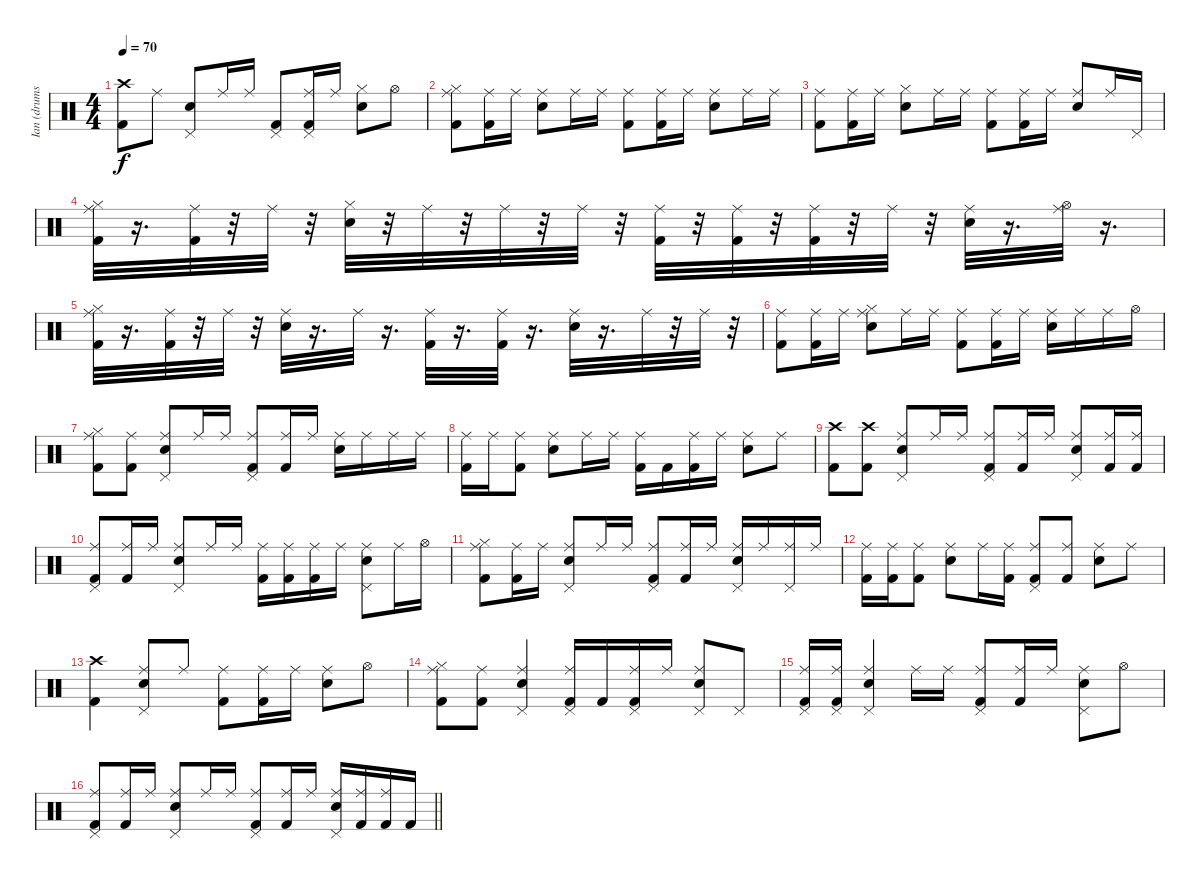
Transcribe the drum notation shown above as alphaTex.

\track ("Ian (drums)" "Ian (drums") {instrument percussion}
\staff {score}
\articulation defaults
\ts (4 4)
\tempo 70
\clef neutral
\ks c
("Kick (hit) 2" "Crash high (hit)").8{dy f} "Ride (middle)".8 ("Snare (hit) 2" "Pedal Hi-Hat (hit)").8 "Ride (middle)".16 "Ride (middle)".16 ("Kick (hit) 2" "Pedal Hi-Hat (hit)").8 ("Kick (hit) 2" "Pedal Hi-Hat (hit)" "Ride (middle)").16 "Ride (middle)".16 ("Snare (hit) 2" "Hi-Hat (closed)").8 "Hi-Hat (open)".8 |
("Kick (hit) 2" "Hi-Hat (closed)" "Ride (middle)").8 ("Kick (hit) 2" "Ride (middle)").16 "Ride (middle)".16 ("Snare (hit) 2" "Ride (middle)").8 "Ride (middle)".16 "Ride (middle)".16 ("Kick (hit) 2" "Ride (middle)").8 ("Kick (hit) 2" "Ride (middle)").16 "Ride (middle)".16 ("Snare (hit) 2" "Ride (middle)").8 "Ride (middle)".16 "Ride (middle)".16 |
("Kick (hit) 2" "Ride (middle)").8 ("Kick (hit) 2" "Ride (middle)").16 "Ride (middle)".16 ("Snare (hit) 2" "Hi-Hat (closed)").8 "Ride (middle)".16 "Ride (middle)".16 ("Kick (hit) 2" "Ride (middle)").8 ("Kick (hit) 2" "Ride (middle)").16 "Ride (middle)".16 ("Snare (hit) 2" "Ride (middle)").8 "Ride (middle)".16 "Pedal Hi-Hat (hit)".16 |
("Kick (hit) 2" "Hi-Hat (closed)" "Ride (middle)").32 r.16{d} ("Kick (hit) 2" "Ride (middle)").32 r.32 "Ride (middle)".32 r.32 ("Snare (hit) 2" "Hi-Hat (closed)").32 r.32 "Ride (middle)".32 r.32 "Ride (middle)".32 r.32 "Ride (middle)".32 r.32 ("Kick (hit) 2" "Ride (middle)").32 r.32 ("Kick (hit) 2" "Ride (middle)").32 r.32 ("Kick (hit) 2" "Ride (middle)").32 r.32 "Ride (middle)".32 r.32 ("Snare (hit) 2" "Ride (middle)").32 r.16{d} ("Hi-Hat (open)" "Ride (middle)").32 r.16{d} |
("Kick (hit) 2" "Hi-Hat (closed)" "Ride (middle)").32 r.16{d} ("Kick (hit) 2" "Ride (middle)").32 r.32 "Ride (middle)".32 r.32 ("Snare (hit) 2" "Ride (middle)").32 r.16{d} "Ride (middle)".32 r.16{d} ("Kick (hit) 2" "Ride (middle)").32 r.16{d} ("Kick (hit) 2" "Ride (middle)").32 r.16{d} ("Snare (hit) 2" "Ride (middle)").32 r.16{d} "Ride (middle)".32 r.32 "Ride (middle)".32 r.32 |
("Kick (hit) 2" "Ride (middle)").8 ("Kick (hit) 2" "Ride (middle)").16 "Ride (middle)".16 ("Snare (hit) 2" "Hi-Hat (closed)" "Ride (middle)").8 "Ride (middle)".16 "Ride (middle)".16 ("Kick (hit) 2" "Ride (middle)").8 ("Kick (hit) 2" "Ride (middle)").16 "Ride (middle)".16 ("Snare (hit) 2" "Ride (middle)").16 "Ride (middle)".16 "Ride (middle)".16 "Hi-Hat (open)".16 |
("Kick (hit) 2" "Hi-Hat (closed)" "Ride (middle)").8 ("Kick (hit) 2" "Ride (middle)").8 ("Snare (hit) 2" "Pedal Hi-Hat (hit)" "Ride (middle)").8 "Ride (middle)".16 "Ride (middle)".16 ("Kick (hit) 2" "Pedal Hi-Hat (hit)" "Ride (middle)").8 ("Kick (hit) 2" "Ride (middle)").16 "Ride (middle)".16 ("Snare (hit) 2" "Ride (middle)").16 "Ride (middle)".16 "Ride (middle)".16 "Ride (middle)".16 |
("Kick (hit) 2" "Ride (middle)").16 "Ride (middle)".16 ("Kick (hit) 2" "Ride (middle)").8 ("Snare (hit) 2" "Ride (middle)").8 "Ride (middle)".16 "Ride (middle)".16 ("Kick (hit) 2" "Ride (middle)").16 "Kick (hit) 2".16 ("Kick (hit) 2" "Ride (middle)").16 "Ride (middle)".16 ("Snare (hit) 2" "Ride (middle)").8 "Ride (middle)".8 |
("Kick (hit) 2" "Crash high (hit)").8 ("Kick (hit) 2" "Crash high (hit)").8 ("Snare (hit) 2" "Pedal Hi-Hat (hit)" "Ride (middle)").8 "Ride (middle)".16 "Ride (middle)".16 ("Kick (hit) 2" "Pedal Hi-Hat (hit)" "Ride (middle)").8 ("Kick (hit) 2" "Ride (middle)").16 "Ride (middle)".16 ("Snare (hit) 2" "Pedal Hi-Hat (hit)" "Ride (middle)").8 ("Kick (hit) 2" "Ride (middle)").16 ("Kick (hit) 2" "Ride (middle)").16 |
("Kick (hit) 2" "Pedal Hi-Hat (hit)" "Ride (middle)").8 ("Kick (hit) 2" "Ride (middle)").16 "Ride (middle)".16 ("Snare (hit) 2" "Pedal Hi-Hat (hit)" "Ride (middle)").8 "Ride (middle)".16 "Ride (middle)".16 ("Kick (hit) 2" "Ride (middle)").16 ("Kick (hit) 2" "Ride (middle)").16 ("Kick (hit) 2" "Ride (middle)").16 "Ride (middle)".16 ("Pedal Hi-Hat (hit)" "Snare (hit) 2" "Ride (middle)").8 "Ride (middle)".16 "Hi-Hat (open)".16 |
("Kick (hit) 2" "Hi-Hat (closed)" "Ride (middle)").8 ("Kick (hit) 2" "Ride (middle)").16 "Ride (middle)".16 ("Snare (hit) 2" "Pedal Hi-Hat (hit)" "Ride (middle)").8 "Ride (middle)".16 "Ride (middle)".16 ("Kick (hit) 2" "Pedal Hi-Hat (hit)" "Ride (middle)").8 ("Kick (hit) 2" "Ride (middle)").16 "Ride (middle)".16 ("Snare (hit) 2" "Pedal Hi-Hat (hit)" "Ride (middle)").16 "Ride (middle)".16 ("Pedal Hi-Hat (hit)" "Ride (middle)").16 "Ride (middle)".16 |
("Kick (hit) 2" "Ride (middle)").16 ("Kick (hit) 2" "Ride (middle)").16 ("Kick (hit) 2" "Ride (middle)").8 ("Snare (hit) 2" "Ride (middle)").8 "Ride (middle)".16 ("Kick (hit) 2" "Ride (middle)").16 ("Kick (hit) 2" "Pedal Hi-Hat (hit)" "Ride (middle)").8 ("Kick (hit) 2" "Ride (middle)").8 ("Snare (hit) 2" "Ride (middle)").8 "Ride (middle)".8 |
("Kick (hit) 2" "Crash high (hit)").4 ("Snare (hit) 2" "Pedal Hi-Hat (hit)" "Ride (middle)").8 "Ride (middle)".8 ("Kick (hit) 2" "Ride (middle)").8 ("Kick (hit) 2" "Ride (middle)").16 "Ride (middle)".16 ("Snare (hit) 2" "Ride (middle)").8 "Hi-Hat (open)".8 |
("Kick (hit) 2" "Hi-Hat (closed)" "Ride (middle)").8 ("Kick (hit) 2" "Ride (middle)").8 ("Snare (hit) 2" "Pedal Hi-Hat (hit)" "Ride (middle)").4 ("Pedal Hi-Hat (hit)" "Kick (hit) 2" "Ride (middle)").16 "Kick (hit) 2".16 ("Pedal Hi-Hat (hit)" "Kick (hit) 2" "Ride (middle)").16 "Ride (middle)".16 ("Pedal Hi-Hat (hit)" "Snare (hit) 2" "Ride (middle)").8 "Pedal Hi-Hat (hit)".8 |
("Kick (hit) 2" "Pedal Hi-Hat (hit)" "Ride (middle)").16 ("Kick (hit) 2" "Pedal Hi-Hat (hit)" "Ride (middle)").16 ("Snare (hit) 2" "Pedal Hi-Hat (hit)" "Ride (middle)").4 "Ride (middle)".16 "Ride (middle)".16 ("Kick (hit) 2" "Pedal Hi-Hat (hit)" "Ride (middle)").8 ("Kick (hit) 2" "Ride (middle)").16 "Ride (middle)".16 ("Snare (hit) 2" "Pedal Hi-Hat (hit)" "Ride (middle)").8 "Hi-Hat (open)".8 |
\barLineRight lightlight
("Kick (hit) 2" "Pedal Hi-Hat (hit)" "Ride (middle)").8 ("Kick (hit) 2" "Ride (middle)").16 "Ride (middle)".16 ("Snare (hit) 2" "Pedal Hi-Hat (hit)" "Ride (middle)").8 "Ride (middle)".16 "Ride (middle)".16 ("Kick (hit) 2" "Pedal Hi-Hat (hit)" "Ride (middle)").8 ("Kick (hit) 2" "Ride (middle)").16 "Ride (middle)".16 ("Snare (hit) 2" "Pedal Hi-Hat (hit)" "Ride (middle)").16 ("Kick (hit) 2" "Ride (middle)").16 ("Kick (hit) 2" "Ride (middle)").16 "Kick (hit) 2".16
